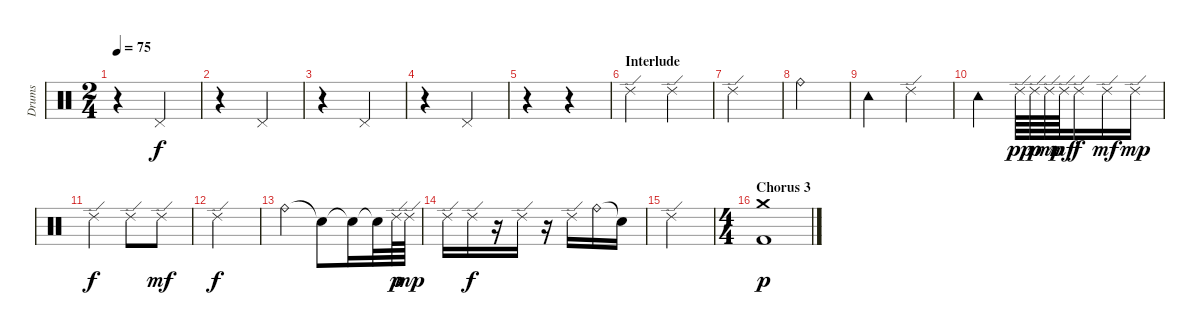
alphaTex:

\track ("Drums" "Drums") {instrument percussion}
\staff {score}
\articulation defaults
\ts (2 4)
\tempo 75
\clef neutral
\ks c
r.4{dy f} "Pedal Hi-Hat (hit)".4 |
r.4 "Pedal Hi-Hat (hit)".4 |
r.4 "Pedal Hi-Hat (hit)".4 |
r.4 "Pedal Hi-Hat (hit)".4 |
r.4 r.4 |
\section ("" "Interlude")
"Ride (edge) 2".4 "Ride (edge) 2".4 |
"Ride (edge) 2".2 |
"Ride (bell)".2 |
"Tambourine (hit)".4 "Ride (edge) 2".4 |
"Tambourine (hit)".4 "Ride (edge) 2".64{dy pp} "Ride (edge) 2".64{dy p} "Ride (edge) 2".64{dy mp} "Ride (edge) 2".64{dy mf} "Ride (edge) 2".16{dy f} "Ride (edge) 2".16{dy mf} "Ride (edge) 2".16{dy mp} |
"Ride (edge) 2".4{dy f} "Ride (edge) 2".8 "Ride (edge) 2".8{dy mf} |
"Ride (edge) 2".2{dy f} |
"Ride (bell)".4 "Snare (hit)"{t}.8 "Snare (hit)"{t}.16 "Snare (hit)"{t}.32 "Ride (edge) 2".64{dy p} "Ride (edge) 2".64{dy mp} |
"Ride (edge) 2".16 "Ride (edge) 2".16{dy f} r.16 "Ride (edge) 2".16 r.16 "Ride (edge) 2".16 "Ride (bell)".16 "Snare (hit)"{t}.16 |
"Ride (edge) 2".2 |
\ts (4 4)
\section ("" "Chorus 3")
("Kick (hit) 2" "Crash medium (hit)").1{dy p}
